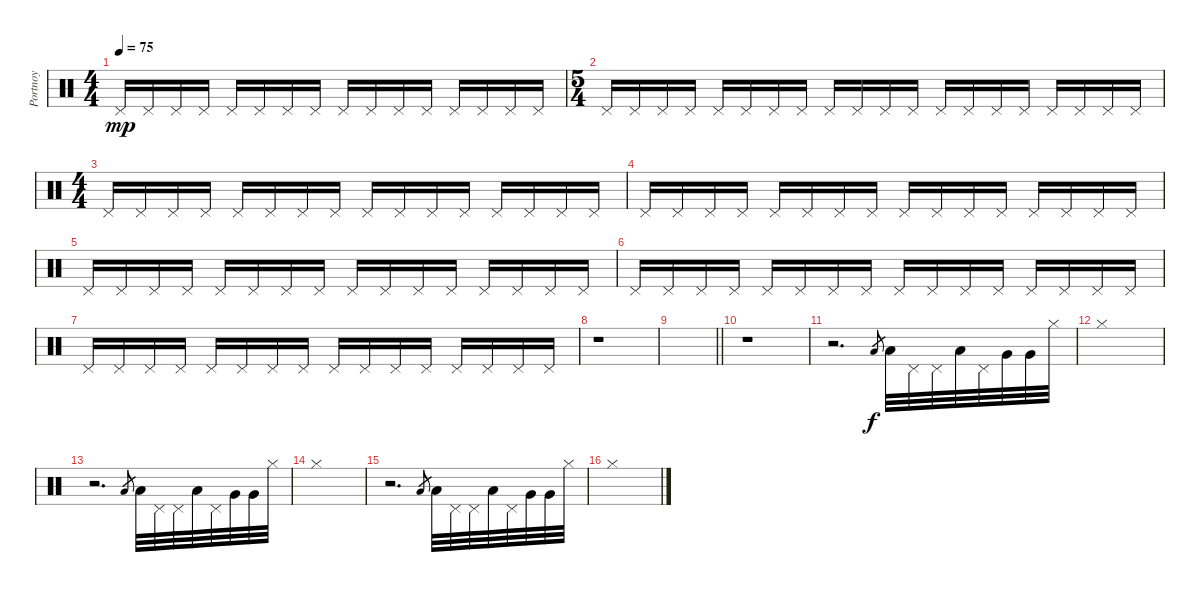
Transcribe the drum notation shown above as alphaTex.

\track ("Portnoy" "Portnoy") {instrument percussion}
\staff {score}
\articulation defaults
\ts (4 4)
\tempo 75
\clef neutral
\ks c "Pedal Hi-Hat (hit)".16{dy mp} "Pedal Hi-Hat (hit)".16 "Pedal Hi-Hat (hit)".16 "Pedal Hi-Hat (hit)".16 "Pedal Hi-Hat (hit)".16 "Pedal Hi-Hat (hit)".16 "Pedal Hi-Hat (hit)".16 "Pedal Hi-Hat (hit)".16 "Pedal Hi-Hat (hit)".16 "Pedal Hi-Hat (hit)".16 "Pedal Hi-Hat (hit)".16 "Pedal Hi-Hat (hit)".16 "Pedal Hi-Hat (hit)".16 "Pedal Hi-Hat (hit)".16 "Pedal Hi-Hat (hit)".16 "Pedal Hi-Hat (hit)".16
|
\ts (5 4)
"Pedal Hi-Hat (hit)".16 "Pedal Hi-Hat (hit)".16 "Pedal Hi-Hat (hit)".16 "Pedal Hi-Hat (hit)".16 "Pedal Hi-Hat (hit)".16 "Pedal Hi-Hat (hit)".16 "Pedal Hi-Hat (hit)".16 "Pedal Hi-Hat (hit)".16 "Pedal Hi-Hat (hit)".16 "Pedal Hi-Hat (hit)".16 "Pedal Hi-Hat (hit)".16 "Pedal Hi-Hat (hit)".16 "Pedal Hi-Hat (hit)".16 "Pedal Hi-Hat (hit)".16 "Pedal Hi-Hat (hit)".16 "Pedal Hi-Hat (hit)".16 "Pedal Hi-Hat (hit)".16 "Pedal Hi-Hat (hit)".16 "Pedal Hi-Hat (hit)".16 "Pedal Hi-Hat (hit)".16 |
\ts (4 4)
"Pedal Hi-Hat (hit)".16 "Pedal Hi-Hat (hit)".16 "Pedal Hi-Hat (hit)".16 "Pedal Hi-Hat (hit)".16 "Pedal Hi-Hat (hit)".16 "Pedal Hi-Hat (hit)".16 "Pedal Hi-Hat (hit)".16 "Pedal Hi-Hat (hit)".16 "Pedal Hi-Hat (hit)".16 "Pedal Hi-Hat (hit)".16 "Pedal Hi-Hat (hit)".16 "Pedal Hi-Hat (hit)".16 "Pedal Hi-Hat (hit)".16 "Pedal Hi-Hat (hit)".16 "Pedal Hi-Hat (hit)".16 "Pedal Hi-Hat (hit)".16 |
"Pedal Hi-Hat (hit)".16 "Pedal Hi-Hat (hit)".16 "Pedal Hi-Hat (hit)".16 "Pedal Hi-Hat (hit)".16 "Pedal Hi-Hat (hit)".16 "Pedal Hi-Hat (hit)".16 "Pedal Hi-Hat (hit)".16 "Pedal Hi-Hat (hit)".16 "Pedal Hi-Hat (hit)".16 "Pedal Hi-Hat (hit)".16 "Pedal Hi-Hat (hit)".16 "Pedal Hi-Hat (hit)".16 "Pedal Hi-Hat (hit)".16 "Pedal Hi-Hat (hit)".16 "Pedal Hi-Hat (hit)".16 "Pedal Hi-Hat (hit)".16 |
"Pedal Hi-Hat (hit)".16 "Pedal Hi-Hat (hit)".16 "Pedal Hi-Hat (hit)".16 "Pedal Hi-Hat (hit)".16 "Pedal Hi-Hat (hit)".16 "Pedal Hi-Hat (hit)".16 "Pedal Hi-Hat (hit)".16 "Pedal Hi-Hat (hit)".16 "Pedal Hi-Hat (hit)".16 "Pedal Hi-Hat (hit)".16 "Pedal Hi-Hat (hit)".16 "Pedal Hi-Hat (hit)".16 "Pedal Hi-Hat (hit)".16 "Pedal Hi-Hat (hit)".16 "Pedal Hi-Hat (hit)".16 "Pedal Hi-Hat (hit)".16 |
"Pedal Hi-Hat (hit)".16 "Pedal Hi-Hat (hit)".16 "Pedal Hi-Hat (hit)".16 "Pedal Hi-Hat (hit)".16 "Pedal Hi-Hat (hit)".16 "Pedal Hi-Hat (hit)".16 "Pedal Hi-Hat (hit)".16 "Pedal Hi-Hat (hit)".16 "Pedal Hi-Hat (hit)".16 "Pedal Hi-Hat (hit)".16 "Pedal Hi-Hat (hit)".16 "Pedal Hi-Hat (hit)".16 "Pedal Hi-Hat (hit)".16 "Pedal Hi-Hat (hit)".16 "Pedal Hi-Hat (hit)".16 "Pedal Hi-Hat (hit)".16 |
"Pedal Hi-Hat (hit)".16 "Pedal Hi-Hat (hit)".16 "Pedal Hi-Hat (hit)".16 "Pedal Hi-Hat (hit)".16 "Pedal Hi-Hat (hit)".16 "Pedal Hi-Hat (hit)".16 "Pedal Hi-Hat (hit)".16 "Pedal Hi-Hat (hit)".16 "Pedal Hi-Hat (hit)".16 "Pedal Hi-Hat (hit)".16 "Pedal Hi-Hat (hit)".16 "Pedal Hi-Hat (hit)".16 "Pedal Hi-Hat (hit)".16 "Pedal Hi-Hat (hit)".16 "Pedal Hi-Hat (hit)".16 "Pedal Hi-Hat (hit)".16 |
r.1{volume 7 balance 8} |
\barLineRight lightlight
|
r.1 |
r.2{d} "Low Tom (hit)".8{gr dy f} "Low Tom (hit)".32 "Pedal Hi-Hat (hit)".32 "Pedal Hi-Hat (hit)".32 "Low Tom (hit)".32 "Pedal Hi-Hat (hit)".32 "Very Low Tom (hit)".32 "Very Low Tom (hit)".32 "Hi-Hat (closed)".32 |
"Hi-Hat (closed)".1 |
r.2{d} "Low Tom (hit)".8{gr} "Low Tom (hit)".32 "Pedal Hi-Hat (hit)".32 "Pedal Hi-Hat (hit)".32 "Low Tom (hit)".32 "Pedal Hi-Hat (hit)".32 "Very Low Tom (hit)".32 "Very Low Tom (hit)".32 "Hi-Hat (closed)".32 |
"Hi-Hat (closed)".1 |
r.2{d} "Low Tom (hit)".8{gr} "Low Tom (hit)".32 "Pedal Hi-Hat (hit)".32 "Pedal Hi-Hat (hit)".32 "Low Tom (hit)".32 "Pedal Hi-Hat (hit)".32 "Very Low Tom (hit)".32 "Very Low Tom (hit)".32 "Hi-Hat (closed)".32 |
"Hi-Hat (closed)".1
